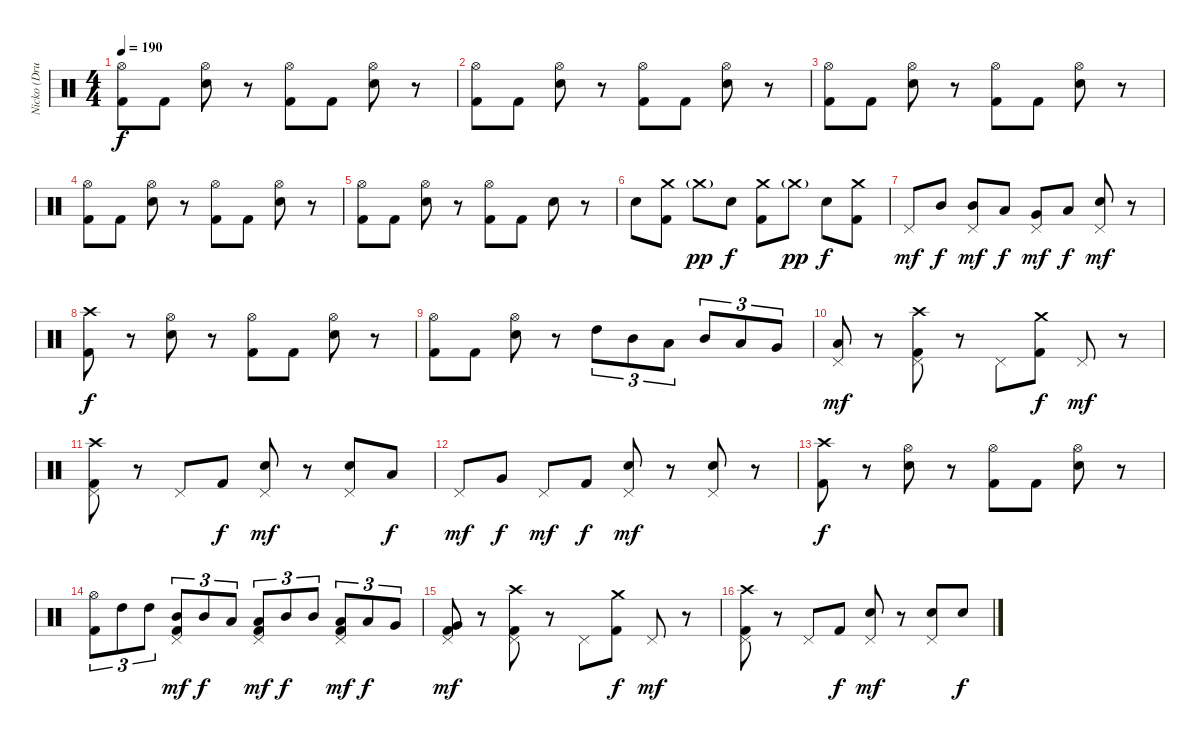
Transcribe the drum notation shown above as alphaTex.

\track ("Nicko (Drums)" "Nicko (Dru") {instrument percussion}
\staff {score}
\articulation defaults
\ts (4 4)
\tempo 190
\clef neutral
\ks c
("Hi-Hat (open)" "Kick (hit) 2").8{dy f} "Kick (hit) 2".8 ("Hi-Hat (open)" "Snare (hit) 2").8 r.8 ("Hi-Hat (open)" "Kick (hit) 2").8 "Kick (hit) 2".8 ("Hi-Hat (open)" "Snare (hit) 2").8 r.8 |
("Hi-Hat (open)" "Kick (hit) 2").8 "Kick (hit) 2".8 ("Hi-Hat (open)" "Snare (hit) 2").8 r.8 ("Hi-Hat (open)" "Kick (hit) 2").8 "Kick (hit) 2".8 ("Hi-Hat (open)" "Snare (hit) 2").8 r.8 |
("Hi-Hat (open)" "Kick (hit) 2").8 "Kick (hit) 2".8 ("Hi-Hat (open)" "Snare (hit) 2").8 r.8 ("Hi-Hat (open)" "Kick (hit) 2").8 "Kick (hit) 2".8 ("Hi-Hat (open)" "Snare (hit) 2").8 r.8 |
("Hi-Hat (open)" "Kick (hit) 2").8 "Kick (hit) 2".8 ("Hi-Hat (open)" "Snare (hit) 2").8 r.8 ("Hi-Hat (open)" "Kick (hit) 2").8 "Kick (hit) 2".8 ("Hi-Hat (open)" "Snare (hit) 2").8 r.8 |
("Hi-Hat (open)" "Kick (hit) 2").8 "Kick (hit) 2".8 ("Hi-Hat (open)" "Snare (hit) 2").8 r.8 ("Hi-Hat (open)" "Kick (hit) 2").8 "Kick (hit) 2".8 "Snare (hit) 2".8 r.8 |
"Snare (hit) 2".8 ("Crash medium (hit)" "Kick (hit) 2").8 "Crash medium (hit)"{g}.8{dy pp} "Snare (hit) 2".8{dy f} ("Crash medium (hit)" "Kick (hit) 2").8 "Crash medium (hit)"{g}.8{dy pp} "Snare (hit) 2".8{dy f} ("Crash medium (hit)" "Kick (hit) 2").8 |
"Pedal Hi-Hat (hit)".8{dy mf} "Mid Tom (hit)".8{dy f} ("Pedal Hi-Hat (hit)" "Mid Tom (hit)").8{dy mf} "Low Tom (hit)".8{dy f} ("Pedal Hi-Hat (hit)" "Very Low Tom (hit)").8{dy mf} "Low Floor Tom (hit)".8{dy f} ("Pedal Hi-Hat (hit)" "Snare (hit) 2").8{dy mf} r.8 |
("Crash high (hit)" "Kick (hit) 2").8{dy f} r.8 ("Hi-Hat (open)" "Snare (hit) 2").8 r.8 ("Hi-Hat (open)" "Kick (hit) 2").8 "Kick (hit) 2".8 ("Hi-Hat (open)" "Snare (hit) 2").8 r.8 |
("Hi-Hat (open)" "Kick (hit) 2").8 "Kick (hit) 2".8 ("Hi-Hat (open)" "Snare (hit) 2").8 r.8 "High Tom (hit)".8{tu (3 2)} "Mid Tom (hit)".8{tu (3 2)} "Low Tom (hit)".8{tu (3 2)} "Mid Tom (hit)".8{tu (3 2)} "Low Tom (hit)".8{tu (3 2)} "Very Low Tom (hit)".8{tu (3 2)} |
("Pedal Hi-Hat (hit)" "Low Floor Tom (hit)").8{dy mf} r.8 ("Crash high (hit)" "Pedal Hi-Hat (hit)" "Kick (hit) 2").8 r.8 "Pedal Hi-Hat (hit)".8 ("Crash medium (hit)" "Kick (hit) 2").8{dy f} "Pedal Hi-Hat (hit)".8{dy mf} r.8 |
("Crash high (hit)" "Pedal Hi-Hat (hit)" "Kick (hit) 2").8 r.8 "Pedal Hi-Hat (hit)".8 "Kick (hit) 2".8{dy f} ("Pedal Hi-Hat (hit)" "Snare (hit) 2").8{dy mf} r.8 ("Pedal Hi-Hat (hit)" "Snare (hit) 2").8 "Low Tom (hit)".8{dy f} |
"Pedal Hi-Hat (hit)".8{dy mf} "Very Low Tom (hit)".8{dy f} "Pedal Hi-Hat (hit)".8{dy mf} "Kick (hit) 2".8{dy f} ("Pedal Hi-Hat (hit)" "Snare (hit) 2").8{dy mf} r.8 ("Pedal Hi-Hat (hit)" "Snare (hit) 2").8 r.8 |
("Crash high (hit)" "Kick (hit) 2").8{dy f} r.8 ("Hi-Hat (open)" "Snare (hit) 2").8 r.8 ("Hi-Hat (open)" "Kick (hit) 2").8 "Kick (hit) 2".8 ("Hi-Hat (open)" "Snare (hit) 2").8 r.8 |
("Hi-Hat (open)" "Kick (hit) 2").8{tu (3 2)} "High Tom (hit)".8{tu (3 2)} "High Tom (hit)".8{tu (3 2)} ("Pedal Hi-Hat (hit)" "Mid Tom (hit)" "Kick (hit) 2").8{tu (3 2) dy mf} "Mid Tom (hit)".8{tu (3 2) dy f} "Low Tom (hit)".8{tu (3 2)} ("Pedal Hi-Hat (hit)" "Low Tom (hit)" "Kick (hit) 2").8{tu (3 2) dy mf} "Mid Tom (hit)".8{tu (3 2) dy f} "Mid Tom (hit)".8{tu (3 2)} ("Pedal Hi-Hat (hit)" "Low Tom (hit)" "Kick (hit) 2").8{tu (3 2) dy mf} "Low Tom (hit)".8{tu (3 2) dy f} "Very Low Tom (hit)".8{tu (3 2)} |
("Pedal Hi-Hat (hit)" "Very Low Tom (hit)" "Kick (hit) 2").8{dy mf} r.8 ("Crash high (hit)" "Pedal Hi-Hat (hit)" "Kick (hit) 2").8 r.8 "Pedal Hi-Hat (hit)".8 ("Crash medium (hit)" "Kick (hit) 2").8{dy f} "Pedal Hi-Hat (hit)".8{dy mf} r.8 |
("Crash high (hit)" "Pedal Hi-Hat (hit)" "Kick (hit) 2").8 r.8 "Pedal Hi-Hat (hit)".8 "Kick (hit) 2".8{dy f} ("Pedal Hi-Hat (hit)" "Snare (hit) 2").8{dy mf} r.8 ("Pedal Hi-Hat (hit)" "Snare (hit) 2").8 "Snare (hit) 2".8{dy f}
